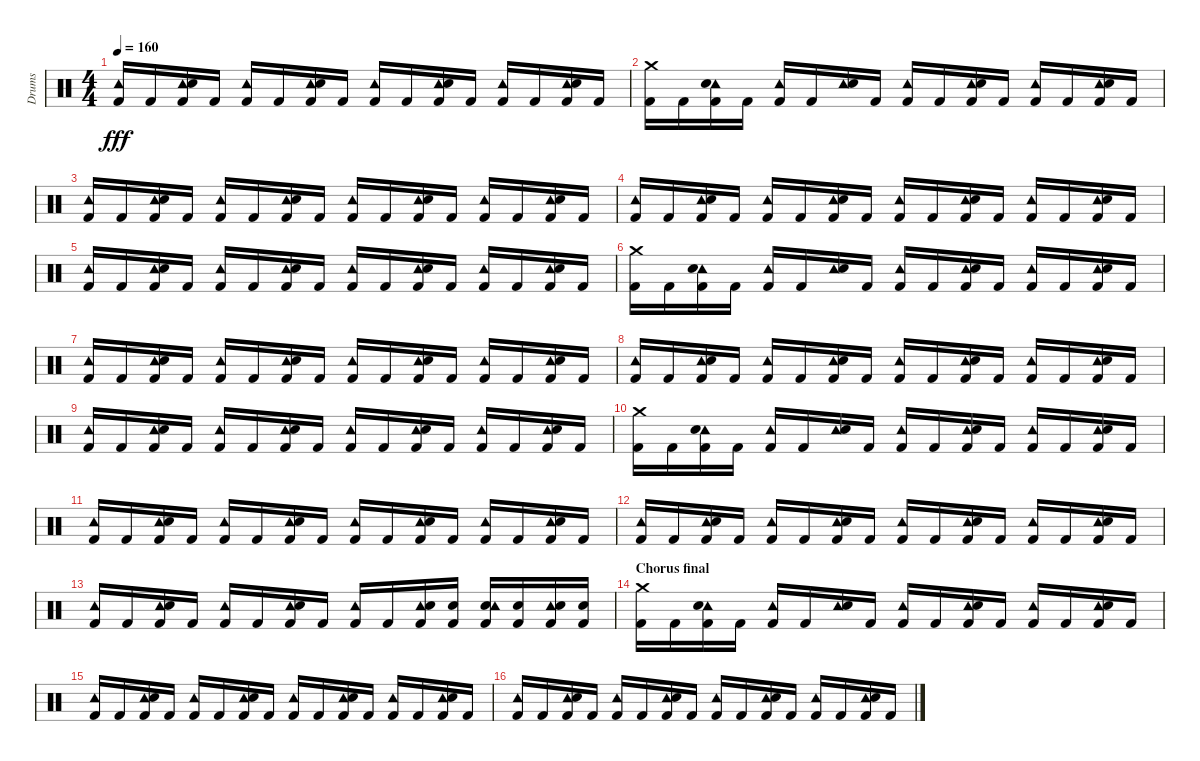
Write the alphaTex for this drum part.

\track ("Drums" "Drums") {instrument percussion}
\staff {score}
\articulation defaults
\ts (4 4)
\tempo 160
\clef neutral
\ks c
("Kick (hit) 2" "Tambourine (hit)").16{dy fff} "Kick (hit) 2".16 ("Kick (hit) 2" "Tambourine (hit)" "Electric Snare (hit)").16 "Kick (hit) 2".16 ("Kick (hit) 2" "Tambourine (hit)").16 "Kick (hit) 2".16 ("Kick (hit) 2" "Tambourine (hit)" "Electric Snare (hit)").16 "Kick (hit) 2".16 ("Kick (hit) 2" "Tambourine (hit)").16 "Kick (hit) 2".16 ("Kick (hit) 2" "Tambourine (hit)" "Electric Snare (hit)").16 "Kick (hit) 2".16 ("Kick (hit) 2" "Tambourine (hit)").16 "Kick (hit) 2".16 ("Kick (hit) 2" "Tambourine (hit)" "Electric Snare (hit)").16 "Kick (hit) 2".16 |
("Crash medium (hit)" "Kick (hit) 2").16 "Kick (hit) 2".16 ("Kick (hit) 2" "Tambourine (hit)" "Electric Snare (hit)").16 "Kick (hit) 2".16 ("Kick (hit) 2" "Tambourine (hit)").16 "Kick (hit) 2".16 ("Tambourine (hit)" "Electric Snare (hit)").16 "Kick (hit) 2".16 ("Kick (hit) 2" "Tambourine (hit)").16 "Kick (hit) 2".16 ("Kick (hit) 2" "Tambourine (hit)" "Electric Snare (hit)").16 "Kick (hit) 2".16 ("Kick (hit) 2" "Tambourine (hit)").16 "Kick (hit) 2".16 ("Kick (hit) 2" "Tambourine (hit)" "Electric Snare (hit)").16 "Kick (hit) 2".16 |
("Kick (hit) 2" "Tambourine (hit)").16 "Kick (hit) 2".16 ("Kick (hit) 2" "Tambourine (hit)" "Electric Snare (hit)").16 "Kick (hit) 2".16 ("Kick (hit) 2" "Tambourine (hit)").16 "Kick (hit) 2".16 ("Kick (hit) 2" "Tambourine (hit)" "Electric Snare (hit)").16 "Kick (hit) 2".16 ("Kick (hit) 2" "Tambourine (hit)").16 "Kick (hit) 2".16 ("Kick (hit) 2" "Tambourine (hit)" "Electric Snare (hit)").16 "Kick (hit) 2".16 ("Kick (hit) 2" "Tambourine (hit)").16 "Kick (hit) 2".16 ("Kick (hit) 2" "Tambourine (hit)" "Electric Snare (hit)").16 "Kick (hit) 2".16 |
("Kick (hit) 2" "Tambourine (hit)").16 "Kick (hit) 2".16 ("Kick (hit) 2" "Tambourine (hit)" "Electric Snare (hit)").16 "Kick (hit) 2".16 ("Kick (hit) 2" "Tambourine (hit)").16 "Kick (hit) 2".16 ("Kick (hit) 2" "Tambourine (hit)" "Electric Snare (hit)").16 "Kick (hit) 2".16 ("Kick (hit) 2" "Tambourine (hit)").16 "Kick (hit) 2".16 ("Kick (hit) 2" "Tambourine (hit)" "Electric Snare (hit)").16 "Kick (hit) 2".16 ("Kick (hit) 2" "Tambourine (hit)").16 "Kick (hit) 2".16 ("Kick (hit) 2" "Tambourine (hit)" "Electric Snare (hit)").16 "Kick (hit) 2".16 |
("Kick (hit) 2" "Tambourine (hit)").16 "Kick (hit) 2".16 ("Kick (hit) 2" "Tambourine (hit)" "Electric Snare (hit)").16 "Kick (hit) 2".16 ("Kick (hit) 2" "Tambourine (hit)").16 "Kick (hit) 2".16 ("Kick (hit) 2" "Tambourine (hit)" "Electric Snare (hit)").16 "Kick (hit) 2".16 ("Kick (hit) 2" "Tambourine (hit)").16 "Kick (hit) 2".16 ("Kick (hit) 2" "Tambourine (hit)" "Electric Snare (hit)").16 "Kick (hit) 2".16 ("Kick (hit) 2" "Tambourine (hit)").16 "Kick (hit) 2".16 ("Kick (hit) 2" "Tambourine (hit)" "Electric Snare (hit)").16 "Kick (hit) 2".16 |
("Crash medium (hit)" "Kick (hit) 2").16 "Kick (hit) 2".16 ("Kick (hit) 2" "Tambourine (hit)" "Electric Snare (hit)").16 "Kick (hit) 2".16 ("Kick (hit) 2" "Tambourine (hit)").16 "Kick (hit) 2".16 ("Tambourine (hit)" "Electric Snare (hit)").16 "Kick (hit) 2".16 ("Kick (hit) 2" "Tambourine (hit)").16 "Kick (hit) 2".16 ("Kick (hit) 2" "Tambourine (hit)" "Electric Snare (hit)").16 "Kick (hit) 2".16 ("Kick (hit) 2" "Tambourine (hit)").16 "Kick (hit) 2".16 ("Kick (hit) 2" "Tambourine (hit)" "Electric Snare (hit)").16 "Kick (hit) 2".16 |
("Kick (hit) 2" "Tambourine (hit)").16 "Kick (hit) 2".16 ("Kick (hit) 2" "Tambourine (hit)" "Electric Snare (hit)").16 "Kick (hit) 2".16 ("Kick (hit) 2" "Tambourine (hit)").16 "Kick (hit) 2".16 ("Kick (hit) 2" "Tambourine (hit)" "Electric Snare (hit)").16 "Kick (hit) 2".16 ("Kick (hit) 2" "Tambourine (hit)").16 "Kick (hit) 2".16 ("Kick (hit) 2" "Tambourine (hit)" "Electric Snare (hit)").16 "Kick (hit) 2".16 ("Kick (hit) 2" "Tambourine (hit)").16 "Kick (hit) 2".16 ("Kick (hit) 2" "Tambourine (hit)" "Electric Snare (hit)").16 "Kick (hit) 2".16 |
("Kick (hit) 2" "Tambourine (hit)").16 "Kick (hit) 2".16 ("Kick (hit) 2" "Tambourine (hit)" "Electric Snare (hit)").16 "Kick (hit) 2".16 ("Kick (hit) 2" "Tambourine (hit)").16 "Kick (hit) 2".16 ("Kick (hit) 2" "Tambourine (hit)" "Electric Snare (hit)").16 "Kick (hit) 2".16 ("Kick (hit) 2" "Tambourine (hit)").16 "Kick (hit) 2".16 ("Kick (hit) 2" "Tambourine (hit)" "Electric Snare (hit)").16 "Kick (hit) 2".16 ("Kick (hit) 2" "Tambourine (hit)").16 "Kick (hit) 2".16 ("Kick (hit) 2" "Tambourine (hit)" "Electric Snare (hit)").16 "Kick (hit) 2".16 |
("Kick (hit) 2" "Tambourine (hit)").16 "Kick (hit) 2".16 ("Kick (hit) 2" "Tambourine (hit)" "Electric Snare (hit)").16 "Kick (hit) 2".16 ("Kick (hit) 2" "Tambourine (hit)").16 "Kick (hit) 2".16 ("Kick (hit) 2" "Tambourine (hit)" "Electric Snare (hit)").16 "Kick (hit) 2".16 ("Kick (hit) 2" "Tambourine (hit)").16 "Kick (hit) 2".16 ("Kick (hit) 2" "Tambourine (hit)" "Electric Snare (hit)").16 "Kick (hit) 2".16 ("Kick (hit) 2" "Tambourine (hit)").16 "Kick (hit) 2".16 ("Kick (hit) 2" "Tambourine (hit)" "Electric Snare (hit)").16 "Kick (hit) 2".16 |
("Crash medium (hit)" "Kick (hit) 2").16 "Kick (hit) 2".16 ("Kick (hit) 2" "Tambourine (hit)" "Electric Snare (hit)").16 "Kick (hit) 2".16 ("Kick (hit) 2" "Tambourine (hit)").16 "Kick (hit) 2".16 ("Tambourine (hit)" "Electric Snare (hit)").16 "Kick (hit) 2".16 ("Kick (hit) 2" "Tambourine (hit)").16 "Kick (hit) 2".16 ("Kick (hit) 2" "Tambourine (hit)" "Electric Snare (hit)").16 "Kick (hit) 2".16 ("Kick (hit) 2" "Tambourine (hit)").16 "Kick (hit) 2".16 ("Kick (hit) 2" "Tambourine (hit)" "Electric Snare (hit)").16 "Kick (hit) 2".16 |
("Kick (hit) 2" "Tambourine (hit)").16 "Kick (hit) 2".16 ("Kick (hit) 2" "Tambourine (hit)" "Electric Snare (hit)").16 "Kick (hit) 2".16 ("Kick (hit) 2" "Tambourine (hit)").16 "Kick (hit) 2".16 ("Kick (hit) 2" "Tambourine (hit)" "Electric Snare (hit)").16 "Kick (hit) 2".16 ("Kick (hit) 2" "Tambourine (hit)").16 "Kick (hit) 2".16 ("Kick (hit) 2" "Tambourine (hit)" "Electric Snare (hit)").16 "Kick (hit) 2".16 ("Kick (hit) 2" "Tambourine (hit)").16 "Kick (hit) 2".16 ("Kick (hit) 2" "Tambourine (hit)" "Electric Snare (hit)").16 "Kick (hit) 2".16 |
("Kick (hit) 2" "Tambourine (hit)").16 "Kick (hit) 2".16 ("Kick (hit) 2" "Tambourine (hit)" "Electric Snare (hit)").16 "Kick (hit) 2".16 ("Kick (hit) 2" "Tambourine (hit)").16 "Kick (hit) 2".16 ("Kick (hit) 2" "Tambourine (hit)" "Electric Snare (hit)").16 "Kick (hit) 2".16 ("Kick (hit) 2" "Tambourine (hit)").16 "Kick (hit) 2".16 ("Kick (hit) 2" "Tambourine (hit)" "Electric Snare (hit)").16 "Kick (hit) 2".16 ("Kick (hit) 2" "Tambourine (hit)").16 "Kick (hit) 2".16 ("Kick (hit) 2" "Tambourine (hit)" "Electric Snare (hit)").16 "Kick (hit) 2".16 |
("Kick (hit) 2" "Tambourine (hit)").16 "Kick (hit) 2".16 ("Kick (hit) 2" "Tambourine (hit)" "Electric Snare (hit)").16 "Kick (hit) 2".16 ("Kick (hit) 2" "Tambourine (hit)").16 "Kick (hit) 2".16 ("Kick (hit) 2" "Tambourine (hit)" "Electric Snare (hit)").16 "Kick (hit) 2".16 ("Kick (hit) 2" "Tambourine (hit)").16 "Kick (hit) 2".16 ("Kick (hit) 2" "Tambourine (hit)" "Electric Snare (hit)").16 ("Kick (hit) 2" "Electric Snare (hit)").16 ("Electric Snare (hit)" "Kick (hit) 2" "Tambourine (hit)").16 ("Electric Snare (hit)" "Kick (hit) 2").16 ("Kick (hit) 2" "Tambourine (hit)" "Electric Snare (hit)").16 ("Electric Snare (hit)" "Kick (hit) 2").16 |
\section ("" "Chorus final")
("Crash medium (hit)" "Kick (hit) 2").16 "Kick (hit) 2".16 ("Kick (hit) 2" "Tambourine (hit)" "Electric Snare (hit)").16 "Kick (hit) 2".16 ("Kick (hit) 2" "Tambourine (hit)").16 "Kick (hit) 2".16 ("Tambourine (hit)" "Electric Snare (hit)").16 "Kick (hit) 2".16 ("Kick (hit) 2" "Tambourine (hit)").16 "Kick (hit) 2".16 ("Kick (hit) 2" "Tambourine (hit)" "Electric Snare (hit)").16 "Kick (hit) 2".16 ("Kick (hit) 2" "Tambourine (hit)").16 "Kick (hit) 2".16 ("Kick (hit) 2" "Tambourine (hit)" "Electric Snare (hit)").16 "Kick (hit) 2".16 |
("Kick (hit) 2" "Tambourine (hit)").16 "Kick (hit) 2".16 ("Kick (hit) 2" "Tambourine (hit)" "Electric Snare (hit)").16 "Kick (hit) 2".16 ("Kick (hit) 2" "Tambourine (hit)").16 "Kick (hit) 2".16 ("Kick (hit) 2" "Tambourine (hit)" "Electric Snare (hit)").16 "Kick (hit) 2".16 ("Kick (hit) 2" "Tambourine (hit)").16 "Kick (hit) 2".16 ("Kick (hit) 2" "Tambourine (hit)" "Electric Snare (hit)").16 "Kick (hit) 2".16 ("Kick (hit) 2" "Tambourine (hit)").16 "Kick (hit) 2".16 ("Kick (hit) 2" "Tambourine (hit)" "Electric Snare (hit)").16 "Kick (hit) 2".16 |
("Kick (hit) 2" "Tambourine (hit)").16 "Kick (hit) 2".16 ("Kick (hit) 2" "Tambourine (hit)" "Electric Snare (hit)").16 "Kick (hit) 2".16 ("Kick (hit) 2" "Tambourine (hit)").16 "Kick (hit) 2".16 ("Kick (hit) 2" "Tambourine (hit)" "Electric Snare (hit)").16 "Kick (hit) 2".16 ("Kick (hit) 2" "Tambourine (hit)").16 "Kick (hit) 2".16 ("Kick (hit) 2" "Tambourine (hit)" "Electric Snare (hit)").16 "Kick (hit) 2".16 ("Kick (hit) 2" "Tambourine (hit)").16 "Kick (hit) 2".16 ("Kick (hit) 2" "Tambourine (hit)" "Electric Snare (hit)").16 "Kick (hit) 2".16
